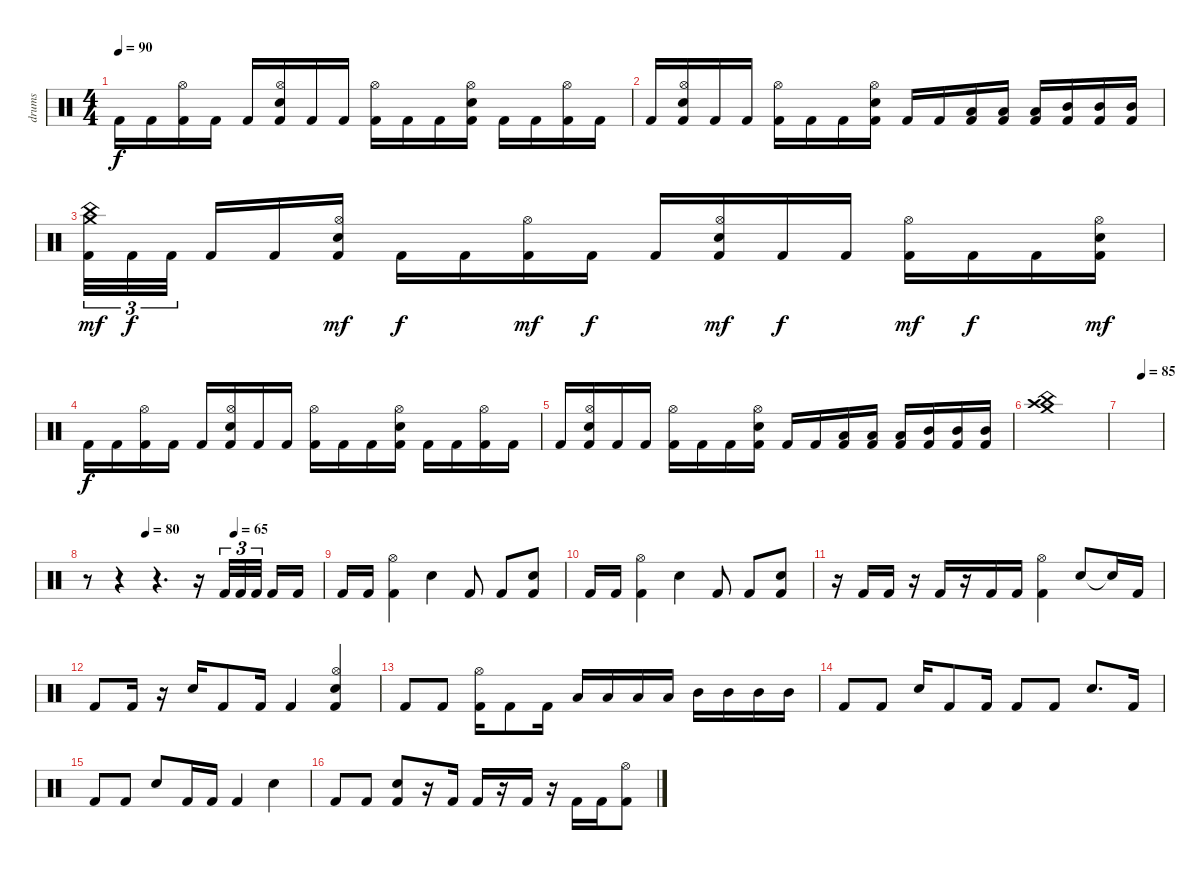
\track ("drums" "drums") {instrument percussion}
\staff {score}
\articulation defaults
\ts (4 4)
\tempo 90
\clef neutral
\ks c "Kick (hit) 2".16{dy f} "Kick (hit) 2".16
("Hi-Hat (open)" "Kick (hit) 2").16 "Kick (hit) 2".16 "Kick (hit) 2".16 ("Hi-Hat (open)" "Snare (hit) 2" "Kick (hit) 2").16 "Kick (hit) 2".16 "Kick (hit) 2".16 ("Hi-Hat (open)" "Kick (hit) 2").16 "Kick (hit) 2".16 "Kick (hit) 2".16 ("Hi-Hat (open)" "Snare (hit) 2" "Kick (hit) 2").16 "Kick (hit) 2".16 "Kick (hit) 2".16 ("Hi-Hat (open)" "Kick (hit) 2").16 "Kick (hit) 2".16 |
"Kick (hit) 2".16 ("Hi-Hat (open)" "Snare (hit) 2" "Kick (hit) 2").16 "Kick (hit) 2".16 "Kick (hit) 2".16 ("Hi-Hat (open)" "Kick (hit) 2").16 "Kick (hit) 2".16 "Kick (hit) 2".16 ("Hi-Hat (open)" "Snare (hit) 2" "Kick (hit) 2").16 "Kick (hit) 2".16 "Kick (hit) 2".16 ("Low Tom (hit)" "Kick (hit) 2").16 ("Low Tom (hit)" "Kick (hit) 2").16 ("Low Tom (hit)" "Kick (hit) 2").16 ("Mid Tom (hit)" "Kick (hit) 2").16 ("Mid Tom (hit)" "Kick (hit) 2").16 ("Mid Tom (hit)" "Kick (hit) 2").16 |
("China (hit)" "Crash medium (hit)" "Kick (hit) 2").32{tu (3 2) dy mf} "Kick (hit) 2".32{tu (3 2) dy f} "Kick (hit) 2".32{tu (3 2) beam splitsecondary} "Kick (hit) 2".16 "Kick (hit) 2".16 ("Hi-Hat (open)" "Snare (hit) 2" "Kick (hit) 2").16{dy mf} "Kick (hit) 2".16{dy f} "Kick (hit) 2".16 ("Hi-Hat (open)" "Kick (hit) 2").16{dy mf} "Kick (hit) 2".16{dy f} "Kick (hit) 2".16 ("Hi-Hat (open)" "Snare (hit) 2" "Kick (hit) 2").16{dy mf} "Kick (hit) 2".16{dy f} "Kick (hit) 2".16 ("Hi-Hat (open)" "Kick (hit) 2").16{dy mf} "Kick (hit) 2".16{dy f} "Kick (hit) 2".16 ("Hi-Hat (open)" "Snare (hit) 2" "Kick (hit) 2").16{dy mf} |
"Kick (hit) 2".16{dy f} "Kick (hit) 2".16 ("Hi-Hat (open)" "Kick (hit) 2").16 "Kick (hit) 2".16 "Kick (hit) 2".16 ("Hi-Hat (open)" "Snare (hit) 2" "Kick (hit) 2").16 "Kick (hit) 2".16 "Kick (hit) 2".16 ("Hi-Hat (open)" "Kick (hit) 2").16 "Kick (hit) 2".16 "Kick (hit) 2".16 ("Hi-Hat (open)" "Snare (hit) 2" "Kick (hit) 2").16 "Kick (hit) 2".16 "Kick (hit) 2".16 ("Hi-Hat (open)" "Kick (hit) 2").16 "Kick (hit) 2".16 |
"Kick (hit) 2".16 ("Hi-Hat (open)" "Snare (hit) 2" "Kick (hit) 2").16 "Kick (hit) 2".16 "Kick (hit) 2".16 ("Hi-Hat (open)" "Kick (hit) 2").16 "Kick (hit) 2".16 "Kick (hit) 2".16 ("Hi-Hat (open)" "Snare (hit) 2" "Kick (hit) 2").16 "Kick (hit) 2".16 "Kick (hit) 2".16 ("Low Tom (hit)" "Kick (hit) 2").16 ("Low Tom (hit)" "Kick (hit) 2").16 ("Low Tom (hit)" "Kick (hit) 2").16 ("Mid Tom (hit)" "Kick (hit) 2").16 ("Mid Tom (hit)" "Kick (hit) 2").16 ("Mid Tom (hit)" "Kick (hit) 2").16 |
("Crash medium (hit)" "Crash high (hit)" "China (hit)").1 |
\tempo (85 0.5)
|
\tempo (80 0.25)
\tempo (65 0.625)
r.8 r.4 r.4{d} r.16 "Kick (hit) 2".32{tu (3 2)} "Kick (hit) 2".32{tu (3 2)} "Kick (hit) 2".32{tu (3 2) beam splitsecondary} "Kick (hit) 2".16 "Kick (hit) 2".16 |
"Kick (hit) 2".16 "Kick (hit) 2".16 ("Hi-Hat (open)" "Kick (hit) 2").4 "Snare (hit) 2".4 "Kick (hit) 2".8 "Kick (hit) 2".8 ("Snare (hit) 2" "Kick (hit) 2").8 |
"Kick (hit) 2".16 "Kick (hit) 2".16 ("Hi-Hat (open)" "Kick (hit) 2").4 "Snare (hit) 2".4 "Kick (hit) 2".8 "Kick (hit) 2".8 ("Snare (hit) 2" "Kick (hit) 2").8 |
r.16 "Kick (hit) 2".16 "Kick (hit) 2".16 r.16 "Kick (hit) 2".16 r.16 "Kick (hit) 2".16 "Kick (hit) 2".16 ("Hi-Hat (open)" "Kick (hit) 2").4 "Snare (hit) 2".8 "Snare (hit)"{t}.16 "Kick (hit) 2".16 |
"Kick (hit) 2".8 "Kick (hit) 2".16 r.16 "Snare (hit) 2".16 "Kick (hit) 2".8 "Kick (hit) 2".16 "Kick (hit) 2".4 ("Hi-Hat (open)" "Snare (hit) 2" "Kick (hit) 2").4 |
"Kick (hit) 2".8 "Kick (hit) 2".8 ("Hi-Hat (open)" "Kick (hit) 2").16 "Kick (hit) 2".8 "Kick (hit) 2".16 "Low Tom (hit)".16 "Low Tom (hit)".16 "Low Tom (hit)".16 "Low Tom (hit)".16 "Mid Tom (hit)".16 "Mid Tom (hit)".16 "Mid Tom (hit)".16 "Mid Tom (hit)".16 |
"Kick (hit) 2".8 "Kick (hit) 2".8 "Snare (hit) 2".16 "Kick (hit) 2".8 "Kick (hit) 2".16 "Kick (hit) 2".8 "Kick (hit) 2".8 "Snare (hit) 2".8{d} "Kick (hit) 2".16 |
"Kick (hit) 2".8 "Kick (hit) 2".8 "Snare (hit) 2".8 "Kick (hit) 2".16 "Kick (hit) 2".16 "Kick (hit) 2".4 "Snare (hit) 2".4 |
"Kick (hit) 2".8 "Kick (hit) 2".8 ("Snare (hit) 2" "Kick (hit) 2").8 r.16 "Kick (hit) 2".16 "Kick (hit) 2".16 r.16 "Kick (hit) 2".16 r.16 "Kick (hit) 2".16 "Kick (hit) 2".16 ("Hi-Hat (open)" "Kick (hit) 2").8
